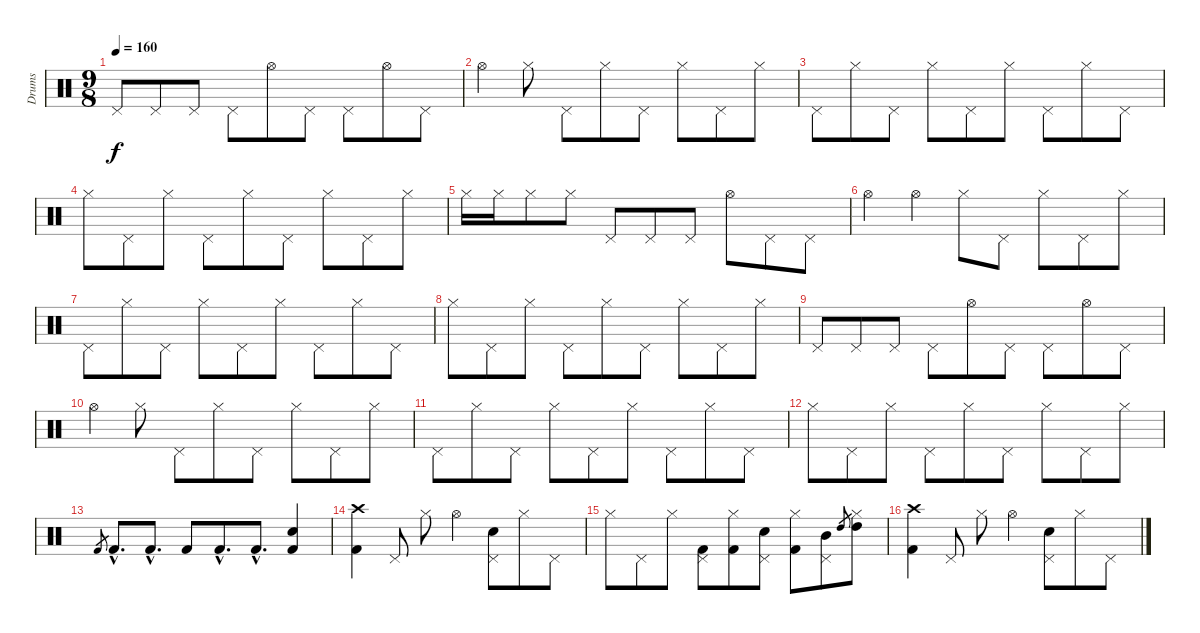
\track ("Drums" "Drums") {instrument percussion}
\staff {score}
\articulation defaults
\ts (9 8)
\tempo 160
\clef neutral
\ks c "Pedal Hi-Hat (hit)".8{dy f} "Pedal Hi-Hat (hit)".8 "Pedal Hi-Hat (hit)".8 "Pedal Hi-Hat (hit)".8 "Hi-Hat (open)".8 "Pedal Hi-Hat (hit)".8 "Pedal Hi-Hat (hit)".8 "Hi-Hat (open)".8 "Pedal Hi-Hat (hit)".8
|
"Hi-Hat (open)".4 "Hi-Hat (closed)".8 "Pedal Hi-Hat (hit)".8 "Hi-Hat (closed)".8 "Pedal Hi-Hat (hit)".8 "Hi-Hat (closed)".8 "Pedal Hi-Hat (hit)".8 "Hi-Hat (closed)".8 |
"Pedal Hi-Hat (hit)".8 "Hi-Hat (closed)".8 "Pedal Hi-Hat (hit)".8 "Hi-Hat (closed)".8 "Pedal Hi-Hat (hit)".8 "Hi-Hat (closed)".8 "Pedal Hi-Hat (hit)".8 "Hi-Hat (closed)".8 "Pedal Hi-Hat (hit)".8 |
"Hi-Hat (closed)".8 "Pedal Hi-Hat (hit)".8 "Hi-Hat (closed)".8 "Pedal Hi-Hat (hit)".8 "Hi-Hat (closed)".8 "Pedal Hi-Hat (hit)".8 "Hi-Hat (closed)".8 "Pedal Hi-Hat (hit)".8 "Hi-Hat (closed)".8 |
"Hi-Hat (closed)".16 "Hi-Hat (closed)".16 "Hi-Hat (closed)".8 "Hi-Hat (closed)".8 "Pedal Hi-Hat (hit)".8 "Pedal Hi-Hat (hit)".8 "Pedal Hi-Hat (hit)".8 "Hi-Hat (open)".8 "Pedal Hi-Hat (hit)".8 "Pedal Hi-Hat (hit)".8 |
"Hi-Hat (open)".4 "Hi-Hat (open)".4 "Hi-Hat (closed)".8 "Pedal Hi-Hat (hit)".8 "Hi-Hat (closed)".8 "Pedal Hi-Hat (hit)".8 "Hi-Hat (closed)".8 |
"Pedal Hi-Hat (hit)".8 "Hi-Hat (closed)".8 "Pedal Hi-Hat (hit)".8 "Hi-Hat (closed)".8 "Pedal Hi-Hat (hit)".8 "Hi-Hat (closed)".8 "Pedal Hi-Hat (hit)".8 "Hi-Hat (closed)".8 "Pedal Hi-Hat (hit)".8 |
"Hi-Hat (closed)".8 "Pedal Hi-Hat (hit)".8 "Hi-Hat (closed)".8 "Pedal Hi-Hat (hit)".8 "Hi-Hat (closed)".8 "Pedal Hi-Hat (hit)".8 "Hi-Hat (closed)".8 "Pedal Hi-Hat (hit)".8 "Hi-Hat (closed)".8 |
"Pedal Hi-Hat (hit)".8 "Pedal Hi-Hat (hit)".8 "Pedal Hi-Hat (hit)".8 "Pedal Hi-Hat (hit)".8 "Hi-Hat (open)".8 "Pedal Hi-Hat (hit)".8 "Pedal Hi-Hat (hit)".8 "Hi-Hat (open)".8 "Pedal Hi-Hat (hit)".8 |
"Hi-Hat (open)".4 "Hi-Hat (closed)".8 "Pedal Hi-Hat (hit)".8 "Hi-Hat (closed)".8 "Pedal Hi-Hat (hit)".8 "Hi-Hat (closed)".8 "Pedal Hi-Hat (hit)".8 "Hi-Hat (closed)".8 |
"Pedal Hi-Hat (hit)".8 "Hi-Hat (closed)".8 "Pedal Hi-Hat (hit)".8 "Hi-Hat (closed)".8 "Pedal Hi-Hat (hit)".8 "Hi-Hat (closed)".8 "Pedal Hi-Hat (hit)".8 "Hi-Hat (closed)".8 "Pedal Hi-Hat (hit)".8 |
"Hi-Hat (closed)".8 "Pedal Hi-Hat (hit)".8 "Hi-Hat (closed)".8 "Pedal Hi-Hat (hit)".8 "Hi-Hat (closed)".8 "Pedal Hi-Hat (hit)".8 "Hi-Hat (closed)".8 "Pedal Hi-Hat (hit)".8 "Hi-Hat (closed)".8 |
"Kick (hit) 2".8{gr} "Kick (hit) 2"{hac}.8{d} "Kick (hit) 2"{hac}.8{d} "Kick (hit) 2".8 "Kick (hit) 2"{hac}.8{d} "Kick (hit) 2"{hac}.8{d} ("Electric Snare (hit)" "Kick (hit) 2").4 |
("Crash high (hit)" "Kick (hit) 2").4 "Pedal Hi-Hat (hit)".8 "Hi-Hat (closed)".8 "Hi-Hat (open)".4 ("Pedal Hi-Hat (hit)" "Electric Snare (hit)").8 "Hi-Hat (closed)".8 "Pedal Hi-Hat (hit)".8 |
"Hi-Hat (closed)".8 "Pedal Hi-Hat (hit)".8 "Hi-Hat (closed)".8 ("Pedal Hi-Hat (hit)" "Kick (hit) 2").8 ("Hi-Hat (closed)" "Kick (hit) 2").8 ("Pedal Hi-Hat (hit)" "Electric Snare (hit)").8 ("Hi-Hat (closed)" "Kick (hit) 2").8 ("Pedal Hi-Hat (hit)" "Mid Tom (hit)").8 "High Tom (hit)".8{gr} ("Hi-Hat (closed)" "High Tom (hit)").8 |
("Crash high (hit)" "Kick (hit) 2").4 "Pedal Hi-Hat (hit)".8 "Hi-Hat (closed)".8 "Hi-Hat (open)".4 ("Pedal Hi-Hat (hit)" "Electric Snare (hit)").8 "Hi-Hat (closed)".8 "Pedal Hi-Hat (hit)".8
